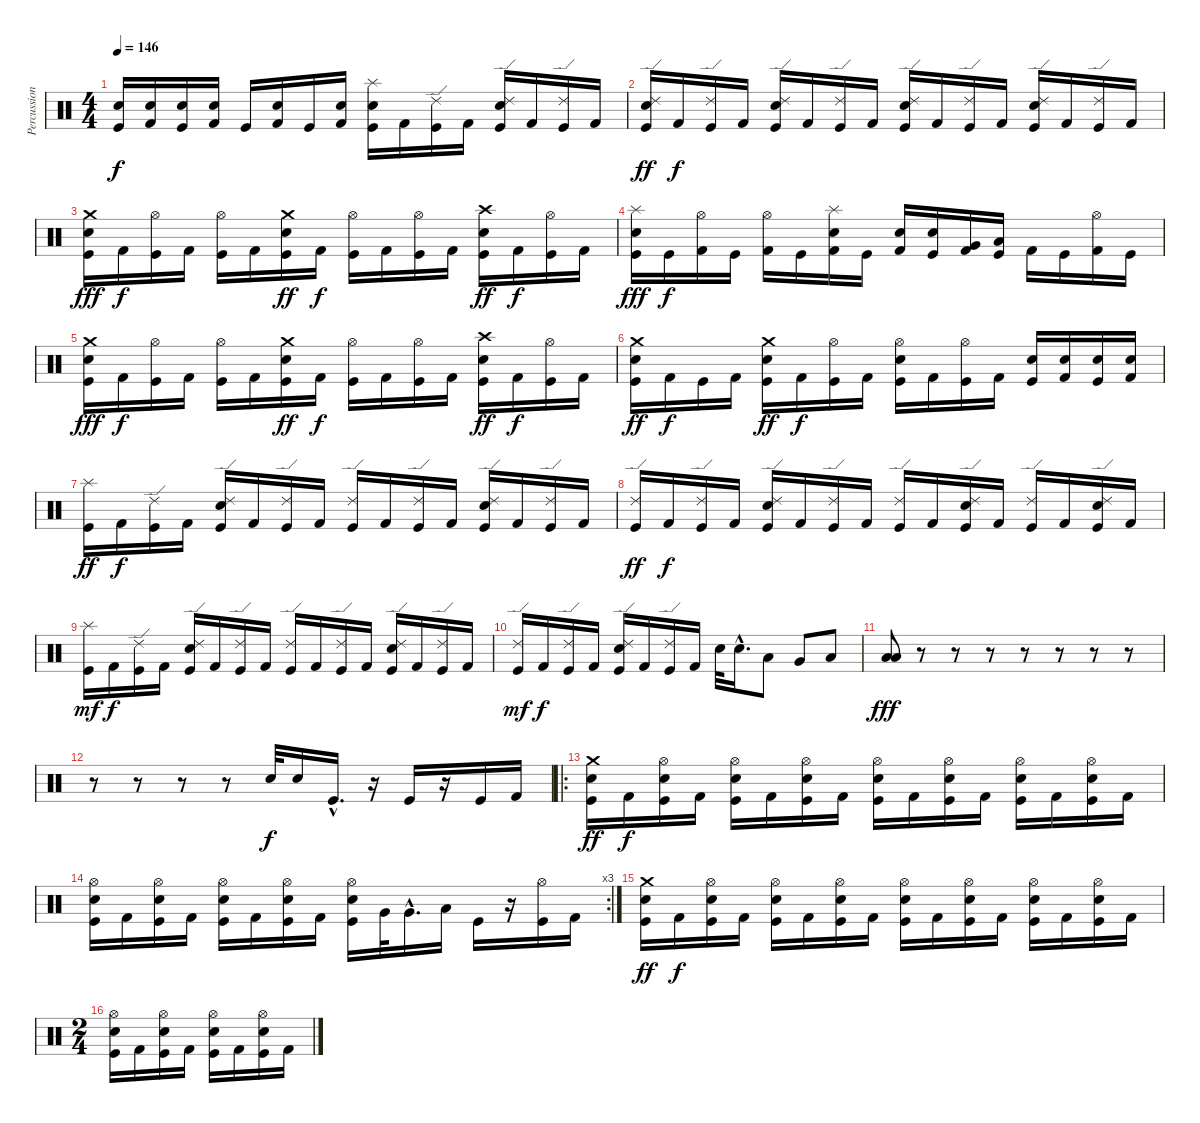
\track ("Percussion" "Percussion") {instrument percussion}
\staff {score}
\articulation defaults
\ts (4 4)
\tempo 146
\clef neutral
\ks c
("Electric Snare (hit)" "Kick (hit)").16{dy f} ("Electric Snare (hit)" "Kick (hit) 2").16 ("Electric Snare (hit)" "Kick (hit)").16 ("Electric Snare (hit)" "Kick (hit) 2").16 "Kick (hit)".16 ("Electric Snare (hit)" "Kick (hit) 2").16 "Kick (hit)".16 ("Electric Snare (hit)" "Kick (hit) 2").16 ("Splash (hit)" "Electric Snare (hit)" "Kick (hit)").16 "Kick (hit) 2".16 ("Ride (edge) 2" "Kick (hit)").16 "Kick (hit) 2".16 ("Ride (edge) 2" "Electric Snare (hit)" "Kick (hit)").16 "Kick (hit) 2".16 ("Ride (edge) 2" "Kick (hit)").16 "Kick (hit) 2".16 |
("Ride (edge) 2" "Electric Snare (hit)" "Kick (hit)").16{dy ff} "Kick (hit) 2".16{dy f} ("Ride (edge) 2" "Kick (hit)").16 "Kick (hit) 2".16 ("Ride (edge) 2" "Electric Snare (hit)" "Kick (hit)").16 "Kick (hit) 2".16 ("Ride (edge) 2" "Kick (hit)").16 "Kick (hit) 2".16 ("Ride (edge) 2" "Electric Snare (hit)" "Kick (hit)").16 "Kick (hit) 2".16 ("Ride (edge) 2" "Kick (hit)").16 "Kick (hit) 2".16 ("Ride (edge) 2" "Electric Snare (hit)" "Kick (hit)").16 "Kick (hit) 2".16 ("Ride (edge) 2" "Kick (hit)").16 "Kick (hit) 2".16 |
("Crash medium (hit)" "Electric Snare (hit)" "Kick (hit)").16{dy fff} "Kick (hit) 2".16{dy f} ("Hi-Hat (open)" "Kick (hit)").16 "Kick (hit) 2".16 ("Hi-Hat (open)" "Kick (hit)").16 "Kick (hit) 2".16 ("Crash medium (hit)" "Electric Snare (hit)" "Kick (hit)").16{dy ff} "Kick (hit) 2".16{dy f} ("Hi-Hat (open)" "Kick (hit)").16 "Kick (hit) 2".16 ("Hi-Hat (open)" "Kick (hit)").16 "Kick (hit) 2".16 ("Crash high (hit)" "Electric Snare (hit)" "Kick (hit)").16{dy ff} "Kick (hit) 2".16{dy f} ("Hi-Hat (open)" "Kick (hit)").16 "Kick (hit) 2".16 |
("Splash (hit)" "Electric Snare (hit)" "Kick (hit)").16{dy fff} "Kick (hit)".16{dy f} ("Hi-Hat (open)" "Kick (hit) 2").16 "Kick (hit)".16 ("Hi-Hat (open)" "Kick (hit) 2").16 "Kick (hit)".16 ("Splash (hit)" "Electric Snare (hit)" "Kick (hit) 2").16 "Kick (hit)".16 ("Electric Snare (hit)" "Kick (hit) 2").16 ("Electric Snare (hit)" "Kick (hit)").16 ("Very Low Tom (hit)" "Kick (hit) 2").16 ("Low Floor Tom (hit)" "Kick (hit)").16 "Kick (hit) 2".16 "Kick (hit)".16 ("Hi-Hat (open)" "Kick (hit) 2").16 "Kick (hit)".16 |
("Crash medium (hit)" "Electric Snare (hit)" "Kick (hit)").16{dy fff} "Kick (hit) 2".16{dy f} ("Hi-Hat (open)" "Kick (hit)").16 "Kick (hit) 2".16 ("Hi-Hat (open)" "Kick (hit)").16 "Kick (hit) 2".16 ("Crash medium (hit)" "Electric Snare (hit)" "Kick (hit)").16{dy ff} "Kick (hit) 2".16{dy f} ("Hi-Hat (open)" "Kick (hit)").16 "Kick (hit) 2".16 ("Hi-Hat (open)" "Kick (hit)").16 "Kick (hit) 2".16 ("Crash high (hit)" "Electric Snare (hit)" "Kick (hit)").16{dy ff} "Kick (hit) 2".16{dy f} ("Hi-Hat (open)" "Kick (hit)").16 "Kick (hit) 2".16 |
("Crash medium (hit)" "Electric Snare (hit)" "Kick (hit)").16{dy ff} "Kick (hit) 2".16{dy f} "Kick (hit)".16 "Kick (hit) 2".16 ("Crash medium (hit)" "Electric Snare (hit)" "Kick (hit)").16{dy ff} "Kick (hit) 2".16{dy f} ("Hi-Hat (open)" "Kick (hit)").16 "Kick (hit) 2".16 ("Hi-Hat (open)" "Electric Snare (hit)" "Kick (hit)").16 "Kick (hit) 2".16 ("Hi-Hat (open)" "Kick (hit)").16 "Kick (hit) 2".16 ("Electric Snare (hit)" "Kick (hit)").16 ("Electric Snare (hit)" "Kick (hit) 2").16 ("Electric Snare (hit)" "Kick (hit)").16 ("Electric Snare (hit)" "Kick (hit) 2").16 |
("Splash (hit)" "Kick (hit)").16{dy ff} "Kick (hit) 2".16{dy f} ("Ride (edge) 2" "Kick (hit)").16 "Kick (hit) 2".16 ("Ride (edge) 2" "Electric Snare (hit)" "Kick (hit)").16 "Kick (hit) 2".16 ("Ride (edge) 2" "Kick (hit)").16 "Kick (hit) 2".16 ("Ride (edge) 2" "Kick (hit)").16 "Kick (hit) 2".16 ("Ride (edge) 2" "Kick (hit)").16 "Kick (hit) 2".16 ("Ride (edge) 2" "Electric Snare (hit)" "Kick (hit)").16 "Kick (hit) 2".16 ("Ride (edge) 2" "Kick (hit)").16 "Kick (hit) 2".16 |
("Ride (edge) 2" "Kick (hit)").16{dy ff} "Kick (hit) 2".16{dy f} ("Ride (edge) 2" "Kick (hit)").16 "Kick (hit) 2".16 ("Ride (edge) 2" "Electric Snare (hit)" "Kick (hit)").16 "Kick (hit) 2".16 ("Ride (edge) 2" "Kick (hit)").16 "Kick (hit) 2".16 ("Ride (edge) 2" "Kick (hit)").16 "Kick (hit) 2".16 ("Ride (edge) 2" "Electric Snare (hit)" "Kick (hit)").16 "Kick (hit) 2".16 ("Ride (edge) 2" "Kick (hit)").16 "Kick (hit) 2".16 ("Ride (edge) 2" "Electric Snare (hit)" "Kick (hit)").16 "Kick (hit) 2".16 |
("Splash (hit)" "Kick (hit)").16{dy mf} "Kick (hit) 2".16{dy f} ("Ride (edge) 2" "Kick (hit)").16 "Kick (hit) 2".16 ("Ride (edge) 2" "Electric Snare (hit)" "Kick (hit)").16 "Kick (hit) 2".16 ("Ride (edge) 2" "Kick (hit)").16 "Kick (hit) 2".16 ("Ride (edge) 2" "Kick (hit)").16 "Kick (hit) 2".16 ("Ride (edge) 2" "Kick (hit)").16 "Kick (hit) 2".16 ("Ride (edge) 2" "Electric Snare (hit)" "Kick (hit)").16 "Kick (hit) 2".16 ("Ride (edge) 2" "Kick (hit)").16 "Kick (hit) 2".16 |
("Ride (edge) 2" "Kick (hit)").16{dy mf} "Kick (hit) 2".16{dy f} ("Ride (edge) 2" "Kick (hit)").16 "Kick (hit) 2".16 ("Ride (edge) 2" "Electric Snare (hit)" "Kick (hit)").16 "Kick (hit) 2".16 ("Ride (edge) 2" "Kick (hit)").16 "Kick (hit) 2".16 "Electric Snare (hit)".32 "Electric Snare (hit)"{hac}.16{d} "Low Tom (hit)".8 "Very Low Tom (hit)".8 "Low Floor Tom (hit)".8 |
("Low Floor Tom (hit)" "Low Floor Tom (hit)").8{dy fff} r.8 r.8 r.8 r.8 r.8 r.8 r.8 |
r.8 r.8 r.8 r.8 "Electric Snare (hit)".32{dy f} "Electric Snare (hit)".16 "Kick (hit)"{hac}.16{d} r.16 "Kick (hit)".16 r.16 "Kick (hit)".16 "Kick (hit) 2".16 |
\ro
("Crash medium (hit)" "Electric Snare (hit)" "Kick (hit)").16{dy ff} "Kick (hit) 2".16{dy f} ("Hi-Hat (open)" "Electric Snare (hit)" "Kick (hit)").16 "Kick (hit) 2".16 ("Hi-Hat (open)" "Electric Snare (hit)" "Kick (hit)").16 "Kick (hit) 2".16 ("Hi-Hat (open)" "Electric Snare (hit)" "Kick (hit)").16 "Kick (hit) 2".16 ("Hi-Hat (open)" "Electric Snare (hit)" "Kick (hit)").16 "Kick (hit) 2".16 ("Hi-Hat (open)" "Electric Snare (hit)" "Kick (hit)").16 "Kick (hit) 2".16 ("Hi-Hat (open)" "Electric Snare (hit)" "Kick (hit)").16 "Kick (hit) 2".16 ("Hi-Hat (open)" "Electric Snare (hit)" "Kick (hit)").16 "Kick (hit) 2".16 |
\rc 3
("Hi-Hat (open)" "Electric Snare (hit)" "Kick (hit)").16 "Kick (hit) 2".16 ("Hi-Hat (open)" "Electric Snare (hit)" "Kick (hit)").16 "Kick (hit) 2".16 ("Hi-Hat (open)" "Electric Snare (hit)" "Kick (hit)").16 "Kick (hit) 2".16 ("Hi-Hat (open)" "Electric Snare (hit)" "Kick (hit)").16 "Kick (hit) 2".16 ("Hi-Hat (open)" "Electric Snare (hit)" "Kick (hit)").16 "Very Low Tom (hit)".32 "Very Low Tom (hit)"{hac}.16{d} "Low Floor Tom (hit)".16 "Kick (hit)".16 r.16 ("Hi-Hat (open)" "Kick (hit)").16 "Kick (hit) 2".16 |
("Crash medium (hit)" "Electric Snare (hit)" "Kick (hit)").16{dy ff} "Kick (hit) 2".16{dy f} ("Hi-Hat (open)" "Electric Snare (hit)" "Kick (hit)").16 "Kick (hit) 2".16 ("Hi-Hat (open)" "Electric Snare (hit)" "Kick (hit)").16 "Kick (hit) 2".16 ("Hi-Hat (open)" "Electric Snare (hit)" "Kick (hit)").16 "Kick (hit) 2".16 ("Hi-Hat (open)" "Electric Snare (hit)" "Kick (hit)").16 "Kick (hit) 2".16 ("Hi-Hat (open)" "Electric Snare (hit)" "Kick (hit)").16 "Kick (hit) 2".16 ("Hi-Hat (open)" "Electric Snare (hit)" "Kick (hit)").16 "Kick (hit) 2".16 ("Hi-Hat (open)" "Electric Snare (hit)" "Kick (hit)").16 "Kick (hit) 2".16 |
\ts (2 4)
("Hi-Hat (open)" "Electric Snare (hit)" "Kick (hit)").16 "Kick (hit) 2".16 ("Hi-Hat (open)" "Electric Snare (hit)" "Kick (hit)").16 "Kick (hit) 2".16 ("Hi-Hat (open)" "Electric Snare (hit)" "Kick (hit)").16 "Kick (hit) 2".16 ("Hi-Hat (open)" "Electric Snare (hit)" "Kick (hit)").16 "Kick (hit) 2".16
